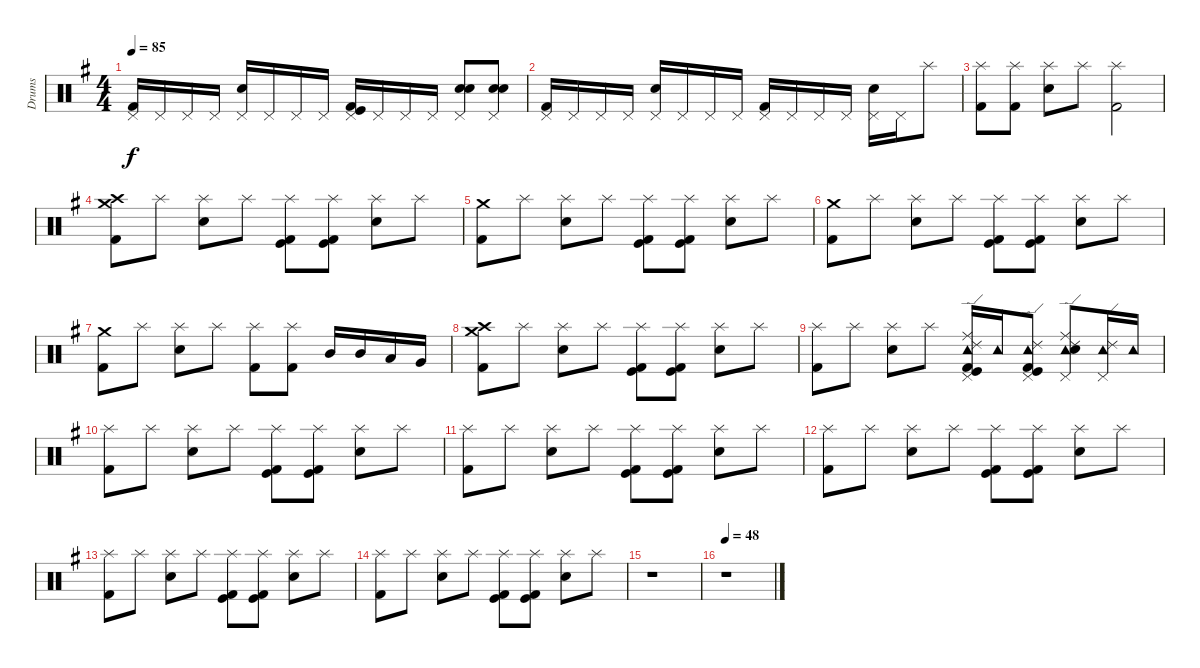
\track ("Drums" "Drums") {instrument percussion}
\staff {score}
\articulation defaults
\ts (4 4)
\tempo 85
\clef neutral
\ks eminor
("Pedal Hi-Hat (hit)" "Kick (hit) 2").16{dy f} "Pedal Hi-Hat (hit)".16 "Pedal Hi-Hat (hit)".16 "Pedal Hi-Hat (hit)".16 ("Pedal Hi-Hat (hit)" "Snare (hit) 2").16 "Pedal Hi-Hat (hit)".16 "Pedal Hi-Hat (hit)".16 "Pedal Hi-Hat (hit)".16 ("Pedal Hi-Hat (hit)" "Kick (hit)" "Kick (hit) 2").16 "Pedal Hi-Hat (hit)".16 "Pedal Hi-Hat (hit)".16 "Pedal Hi-Hat (hit)".16 ("Snare (hit) 2" "Pedal Hi-Hat (hit)" "Electric Snare (hit)").8 ("Snare (hit) 2" "Pedal Hi-Hat (hit)" "Electric Snare (hit)").8 |
("Kick (hit) 2" "Pedal Hi-Hat (hit)").16 "Pedal Hi-Hat (hit)".16 "Pedal Hi-Hat (hit)".16 "Pedal Hi-Hat (hit)".16 ("Pedal Hi-Hat (hit)" "Snare (hit) 2").16 "Pedal Hi-Hat (hit)".16 "Pedal Hi-Hat (hit)".16 "Pedal Hi-Hat (hit)".16 ("Pedal Hi-Hat (hit)" "Kick (hit) 2").16 "Pedal Hi-Hat (hit)".16 "Pedal Hi-Hat (hit)".16 "Pedal Hi-Hat (hit)".16 ("Pedal Hi-Hat (hit)" "Snare (hit) 2").16 "Pedal Hi-Hat (hit)".16 "Splash (hit)".8 |
("Kick (hit) 2" "Splash (hit)").8 ("Kick (hit) 2" "Splash (hit)").8 ("Snare (hit) 2" "Splash (hit)").8 "Splash (hit)".8 ("Splash (hit)" "Kick (hit) 2").2 |
("Kick (hit) 2" "Crash high (hit)" "Crash medium (hit)").8 "Splash (hit)".8 ("Splash (hit)" "Snare (hit) 2").8 "Splash (hit)".8 ("Splash (hit)" "Kick (hit)" "Kick (hit) 2").8 ("Splash (hit)" "Kick (hit)" "Kick (hit) 2").8 ("Splash (hit)" "Snare (hit) 2").8 "Splash (hit)".8 |
("Crash medium (hit)" "Kick (hit) 2").8 "Splash (hit)".8 ("Splash (hit)" "Snare (hit) 2").8 "Splash (hit)".8 ("Splash (hit)" "Kick (hit)" "Kick (hit) 2").8 ("Splash (hit)" "Kick (hit) 2" "Kick (hit)").8 ("Splash (hit)" "Snare (hit) 2").8 "Splash (hit)".8 |
("Kick (hit) 2" "Crash medium (hit)").8 "Splash (hit)".8 ("Splash (hit)" "Snare (hit) 2").8 "Splash (hit)".8 ("Splash (hit)" "Kick (hit)" "Kick (hit) 2").8 ("Splash (hit)" "Kick (hit)" "Kick (hit) 2").8 ("Snare (hit) 2" "Splash (hit)").8 "Splash (hit)".8 |
("Crash medium (hit)" "Kick (hit) 2").8 "Splash (hit)".8 ("Splash (hit)" "Snare (hit) 2").8 "Splash (hit)".8 ("Splash (hit)" "Kick (hit) 2").8 ("Kick (hit) 2" "Splash (hit)").8 "Mid Tom (hit)".16 "Mid Tom (hit)".16 "Low Tom (hit)".16 "Very Low Tom (hit)".16 |
("Kick (hit) 2" "Crash high (hit)" "Crash medium (hit)").8 "Splash (hit)".8 ("Splash (hit)" "Snare (hit) 2").8 "Splash (hit)".8 ("Splash (hit)" "Kick (hit)" "Kick (hit) 2").8 ("Splash (hit)" "Kick (hit)" "Kick (hit) 2").8 ("Splash (hit)" "Snare (hit) 2").8 "Splash (hit)".8 |
("Splash (hit)" "Kick (hit) 2").8 "Splash (hit)".8 ("Splash (hit)" "Snare (hit) 2").8 "Splash (hit)".8 ("Pedal Hi-Hat (hit)" "Ride (middle)" "Ride (edge) 2" "Tambourine (hit)" "Kick (hit)" "Kick (hit) 2").16 "Tambourine (hit)".16 ("Pedal Hi-Hat (hit)" "Ride (edge) 2" "Tambourine (hit)" "Kick (hit)" "Kick (hit) 2").8 ("Pedal Hi-Hat (hit)" "Ride (middle)" "Tambourine (hit)" "Snare (hit) 2" "Ride (edge) 2").8 ("Pedal Hi-Hat (hit)" "Ride (edge) 2" "Tambourine (hit)").16 "Tambourine (hit)".16 |
("Splash (hit)" "Kick (hit) 2").8 "Splash (hit)".8 ("Splash (hit)" "Snare (hit) 2").8 "Splash (hit)".8 ("Splash (hit)" "Kick (hit)" "Kick (hit) 2").8 ("Splash (hit)" "Kick (hit)" "Kick (hit) 2").8 ("Splash (hit)" "Snare (hit) 2").8 "Splash (hit)".8 |
("Splash (hit)" "Kick (hit) 2").8 "Splash (hit)".8 ("Splash (hit)" "Snare (hit) 2").8 "Splash (hit)".8 ("Splash (hit)" "Kick (hit)" "Kick (hit) 2").8 ("Splash (hit)" "Kick (hit)" "Kick (hit) 2").8 ("Splash (hit)" "Snare (hit) 2").8 "Splash (hit)".8 |
("Splash (hit)" "Kick (hit) 2").8 "Splash (hit)".8 ("Splash (hit)" "Snare (hit) 2").8 "Splash (hit)".8 ("Splash (hit)" "Kick (hit)" "Kick (hit) 2").8 ("Splash (hit)" "Kick (hit)" "Kick (hit) 2").8 ("Splash (hit)" "Snare (hit) 2").8 "Splash (hit)".8 |
("Splash (hit)" "Kick (hit) 2").8 "Splash (hit)".8 ("Splash (hit)" "Snare (hit) 2").8 "Splash (hit)".8 ("Splash (hit)" "Kick (hit)" "Kick (hit) 2").8 ("Splash (hit)" "Kick (hit)" "Kick (hit) 2").8 ("Splash (hit)" "Snare (hit) 2").8 "Splash (hit)".8 |
("Splash (hit)" "Kick (hit) 2").8 "Splash (hit)".8 ("Splash (hit)" "Snare (hit) 2").8 "Splash (hit)".8 ("Splash (hit)" "Kick (hit)" "Kick (hit) 2").8 ("Splash (hit)" "Kick (hit)" "Kick (hit) 2").8 ("Splash (hit)" "Snare (hit) 2").8 "Splash (hit)".8 |
r.1 |
\tempo 48
r.1
